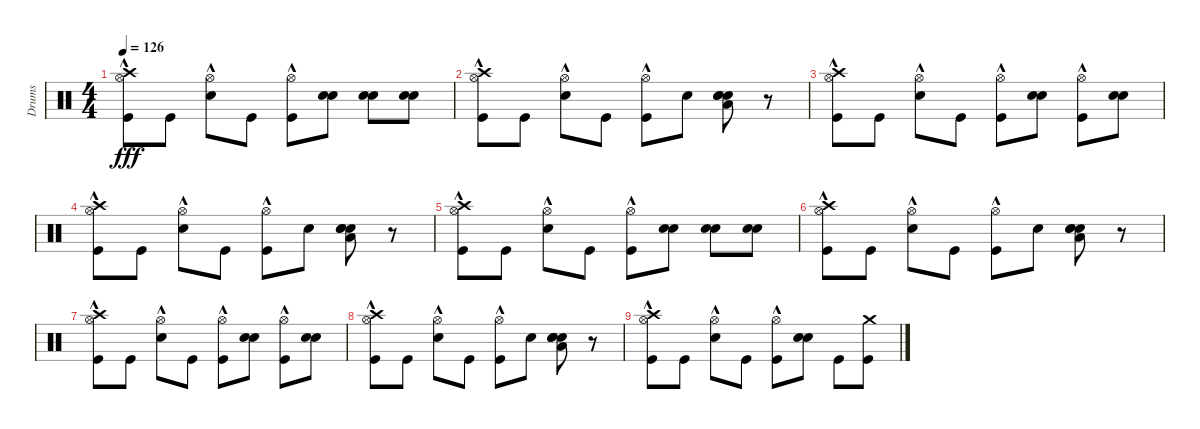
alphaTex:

\track ("Drums" "Drums") {instrument percussion}
\staff {score}
\articulation defaults
\ts (4 4)
\tempo 126
\clef neutral
\ks c
("Hi-Hat (open)"{hac} "Crash high (hit)"{hac} "Kick (hit)").8{dy fff} "Kick (hit)".8 ("Hi-Hat (open)"{hac} "Electric Snare (hit)").8 "Kick (hit)".8 ("Kick (hit)" "Hi-Hat (open)"{hac}).8 ("Electric Snare (hit)" "Snare (hit) 2").8 ("Snare (hit) 2" "Electric Snare (hit)").8 ("Snare (hit) 2" "Electric Snare (hit)").8 |
("Crash high (hit)"{hac} "Kick (hit)" "Hi-Hat (open)"{hac}).8 "Kick (hit)".8 ("Hi-Hat (open)"{hac} "Electric Snare (hit)").8 "Kick (hit)".8 ("Kick (hit)" "Hi-Hat (open)"{hac}).8 "Electric Snare (hit)".8 ("Low Floor Tom (hit)" "Snare (hit) 2" "Electric Snare (hit)" "Electric Snare (hit)").8 r.8 |
("Kick (hit)" "Hi-Hat (open)"{hac} "Crash high (hit)"{hac}).8 "Kick (hit)".8 ("Electric Snare (hit)" "Hi-Hat (open)"{hac}).8 "Kick (hit)".8 ("Hi-Hat (open)"{hac} "Kick (hit)").8 ("Electric Snare (hit)" "Snare (hit) 2").8 ("Kick (hit)" "Hi-Hat (open)"{hac}).8 ("Electric Snare (hit)" "Snare (hit) 2").8 |
("Hi-Hat (open)"{hac} "Crash high (hit)"{hac} "Kick (hit)").8 "Kick (hit)".8 ("Hi-Hat (open)"{hac} "Electric Snare (hit)").8 "Kick (hit)".8 ("Hi-Hat (open)"{hac} "Kick (hit)").8 "Electric Snare (hit)".8 ("Low Floor Tom (hit)" "Snare (hit) 2" "Electric Snare (hit)" "Electric Snare (hit)").8 r.8 |
("Crash high (hit)"{hac} "Kick (hit)" "Hi-Hat (open)"{hac}).8 "Kick (hit)".8 ("Electric Snare (hit)" "Hi-Hat (open)"{hac}).8 "Kick (hit)".8 ("Kick (hit)" "Hi-Hat (open)"{hac}).8 ("Electric Snare (hit)" "Snare (hit) 2").8 ("Snare (hit) 2" "Electric Snare (hit)").8 ("Snare (hit) 2" "Electric Snare (hit)").8 |
("Crash high (hit)"{hac} "Kick (hit)" "Hi-Hat (open)"{hac}).8 "Kick (hit)".8 ("Hi-Hat (open)"{hac} "Electric Snare (hit)").8 "Kick (hit)".8 ("Kick (hit)" "Hi-Hat (open)"{hac}).8 "Electric Snare (hit)".8 ("Low Floor Tom (hit)" "Snare (hit) 2" "Electric Snare (hit)" "Electric Snare (hit)").8 r.8 |
("Kick (hit)" "Hi-Hat (open)"{hac} "Crash high (hit)"{hac}).8 "Kick (hit)".8 ("Electric Snare (hit)" "Hi-Hat (open)"{hac}).8 "Kick (hit)".8 ("Hi-Hat (open)"{hac} "Kick (hit)").8 ("Electric Snare (hit)" "Snare (hit) 2").8 ("Kick (hit)" "Hi-Hat (open)"{hac}).8 ("Electric Snare (hit)" "Snare (hit) 2").8 |
("Hi-Hat (open)"{hac} "Crash high (hit)"{hac} "Kick (hit)").8 "Kick (hit)".8 ("Hi-Hat (open)"{hac} "Electric Snare (hit)").8 "Kick (hit)".8 ("Hi-Hat (open)"{hac} "Kick (hit)").8 "Electric Snare (hit)".8 ("Low Floor Tom (hit)" "Snare (hit) 2" "Electric Snare (hit)" "Electric Snare (hit)").8 r.8 |
("Crash high (hit)"{hac} "Kick (hit)" "Hi-Hat (open)"{hac}).8 "Kick (hit)".8 ("Electric Snare (hit)" "Hi-Hat (open)"{hac}).8 "Kick (hit)".8 ("Kick (hit)" "Hi-Hat (open)"{hac}).8 ("Electric Snare (hit)" "Snare (hit) 2").8 "Kick (hit)".8 ("Kick (hit)" "Crash medium (hit)").8
